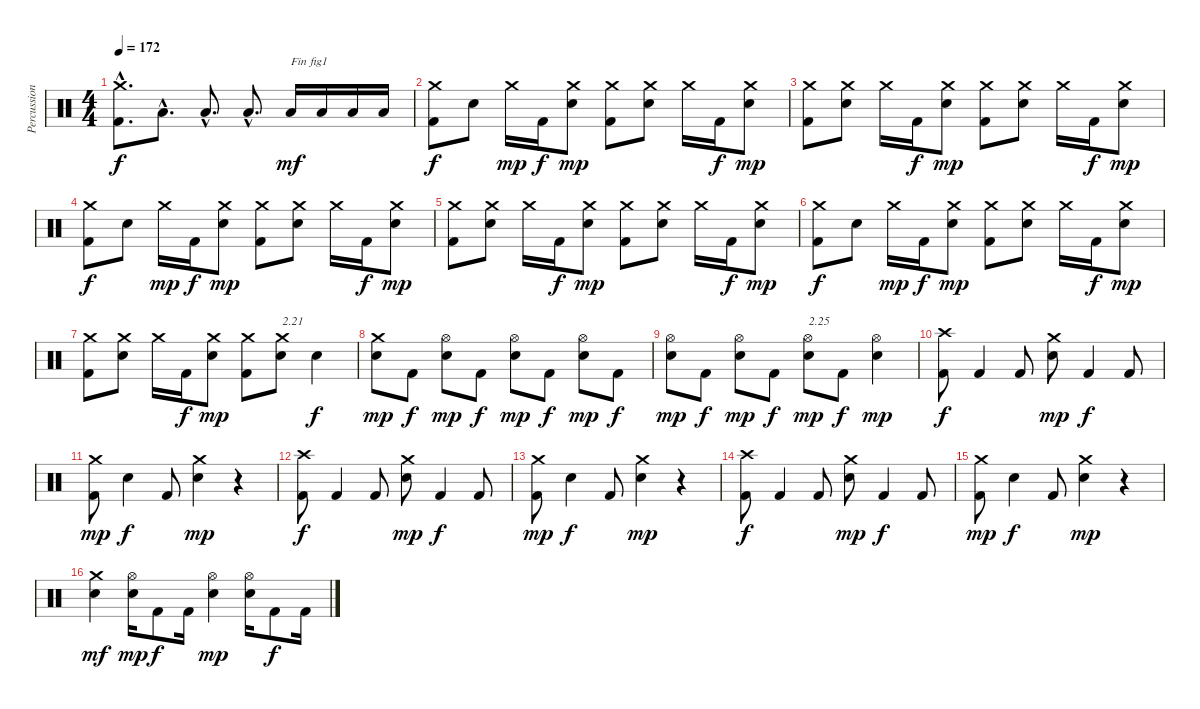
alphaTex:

\track ("Percussions" "Percussion") {instrument percussion}
\staff {score}
\articulation defaults
\ts (4 4)
\tempo 172
\clef neutral
\ks c
("Kick (hit) 2"{hac} "Crash medium (hit)"{hac}).8{d dy f} "Low Floor Tom (hit)"{hac}.8{d} "Low Floor Tom (hit)"{hac}.8{d} "Low Floor Tom (hit)"{hac}.8{d} "Low Floor Tom (hit)".16{txt "Fin fig1" dy mf} "Low Floor Tom (hit)".16 "Low Floor Tom (hit)".16 "Low Floor Tom (hit)".16 |
("Kick (hit) 2" "Crash medium (hit)").8{dy f} "Electric Snare (hit)".8 "Crash medium (hit)".16{dy mp} "Kick (hit) 2".16{dy f} ("Electric Snare (hit)" "Crash medium (hit)").8{dy mp} ("Kick (hit) 2" "Crash medium (hit)").8 ("Electric Snare (hit)" "Crash medium (hit)").8 "Crash medium (hit)".16 "Kick (hit) 2".16{dy f} ("Electric Snare (hit)" "Crash medium (hit)").8{dy mp} |
("Kick (hit) 2" "Crash medium (hit)").8 ("Electric Snare (hit)" "Crash medium (hit)").8 "Crash medium (hit)".16 "Kick (hit) 2".16{dy f} ("Electric Snare (hit)" "Crash medium (hit)").8{dy mp} ("Kick (hit) 2" "Crash medium (hit)").8 ("Electric Snare (hit)" "Crash medium (hit)").8 "Crash medium (hit)".16 "Kick (hit) 2".16{dy f} ("Electric Snare (hit)" "Crash medium (hit)").8{dy mp} |
("Kick (hit) 2" "Crash medium (hit)").8{dy f} "Electric Snare (hit)".8 "Crash medium (hit)".16{dy mp} "Kick (hit) 2".16{dy f} ("Electric Snare (hit)" "Crash medium (hit)").8{dy mp} ("Kick (hit) 2" "Crash medium (hit)").8 ("Electric Snare (hit)" "Crash medium (hit)").8 "Crash medium (hit)".16 "Kick (hit) 2".16{dy f} ("Electric Snare (hit)" "Crash medium (hit)").8{dy mp} |
("Kick (hit) 2" "Crash medium (hit)").8 ("Electric Snare (hit)" "Crash medium (hit)").8 "Crash medium (hit)".16 "Kick (hit) 2".16{dy f} ("Electric Snare (hit)" "Crash medium (hit)").8{dy mp} ("Kick (hit) 2" "Crash medium (hit)").8 ("Electric Snare (hit)" "Crash medium (hit)").8 "Crash medium (hit)".16 "Kick (hit) 2".16{dy f} ("Electric Snare (hit)" "Crash medium (hit)").8{dy mp} |
("Kick (hit) 2" "Crash medium (hit)").8{dy f} "Electric Snare (hit)".8 "Crash medium (hit)".16{dy mp} "Kick (hit) 2".16{dy f} ("Electric Snare (hit)" "Crash medium (hit)").8{dy mp} ("Kick (hit) 2" "Crash medium (hit)").8 ("Electric Snare (hit)" "Crash medium (hit)").8 "Crash medium (hit)".16 "Kick (hit) 2".16{dy f} ("Electric Snare (hit)" "Crash medium (hit)").8{dy mp} |
("Kick (hit) 2" "Crash medium (hit)").8 ("Electric Snare (hit)" "Crash medium (hit)").8 "Crash medium (hit)".16 "Kick (hit) 2".16{dy f} ("Electric Snare (hit)" "Crash medium (hit)").8{dy mp} ("Kick (hit) 2" "Crash medium (hit)").8 ("Electric Snare (hit)" "Crash medium (hit)").8{txt "2.21"} "Electric Snare (hit)".4{dy f} |
("Electric Snare (hit)" "Crash medium (hit)").8{dy mp} "Kick (hit) 2".8{dy f} ("Electric Snare (hit)" "Hi-Hat (open)").8{dy mp} "Kick (hit) 2".8{dy f} ("Electric Snare (hit)" "Hi-Hat (open)").8{dy mp} "Kick (hit) 2".8{dy f} ("Electric Snare (hit)" "Hi-Hat (open)").8{dy mp} "Kick (hit) 2".8{dy f} |
("Electric Snare (hit)" "Hi-Hat (open)").8{dy mp} "Kick (hit) 2".8{dy f} ("Electric Snare (hit)" "Hi-Hat (open)").8{dy mp} "Kick (hit) 2".8{dy f} ("Electric Snare (hit)" "Hi-Hat (open)").8{txt "2.25" dy mp} "Kick (hit) 2".8{dy f} ("Electric Snare (hit)" "Hi-Hat (open)").4{dy mp} |
("Kick (hit) 2" "Crash high (hit)").8{dy f} "Kick (hit) 2".4 "Kick (hit) 2".8 ("Electric Snare (hit)" "Crash medium (hit)").8{dy mp} "Kick (hit) 2".4{dy f} "Kick (hit) 2".8 |
("Kick (hit) 2" "Crash medium (hit)").8{dy mp} "Electric Snare (hit)".4{dy f} "Kick (hit) 2".8 ("Electric Snare (hit)" "Crash medium (hit)").4{dy mp} r.4 |
("Kick (hit) 2" "Crash high (hit)").8{dy f} "Kick (hit) 2".4 "Kick (hit) 2".8 ("Electric Snare (hit)" "Crash medium (hit)").8{dy mp} "Kick (hit) 2".4{dy f} "Kick (hit) 2".8 |
("Kick (hit) 2" "Crash medium (hit)").8{dy mp} "Electric Snare (hit)".4{dy f} "Kick (hit) 2".8 ("Electric Snare (hit)" "Crash medium (hit)").4{dy mp} r.4 |
("Kick (hit) 2" "Crash high (hit)").8{dy f} "Kick (hit) 2".4 "Kick (hit) 2".8 ("Electric Snare (hit)" "Crash medium (hit)").8{dy mp} "Kick (hit) 2".4{dy f} "Kick (hit) 2".8 |
("Kick (hit) 2" "Crash medium (hit)").8{dy mp} "Electric Snare (hit)".4{dy f} "Kick (hit) 2".8 ("Electric Snare (hit)" "Crash medium (hit)").4{dy mp} r.4 |
("Electric Snare (hit)" "Crash medium (hit)").4{dy mf} ("Electric Snare (hit)" "Hi-Hat (open)").16{dy mp} "Kick (hit) 2".8{dy f} "Kick (hit) 2".16 ("Electric Snare (hit)" "Hi-Hat (open)").4{dy mp} ("Electric Snare (hit)" "Hi-Hat (open)").16 "Kick (hit) 2".8{dy f} "Kick (hit) 2".16
